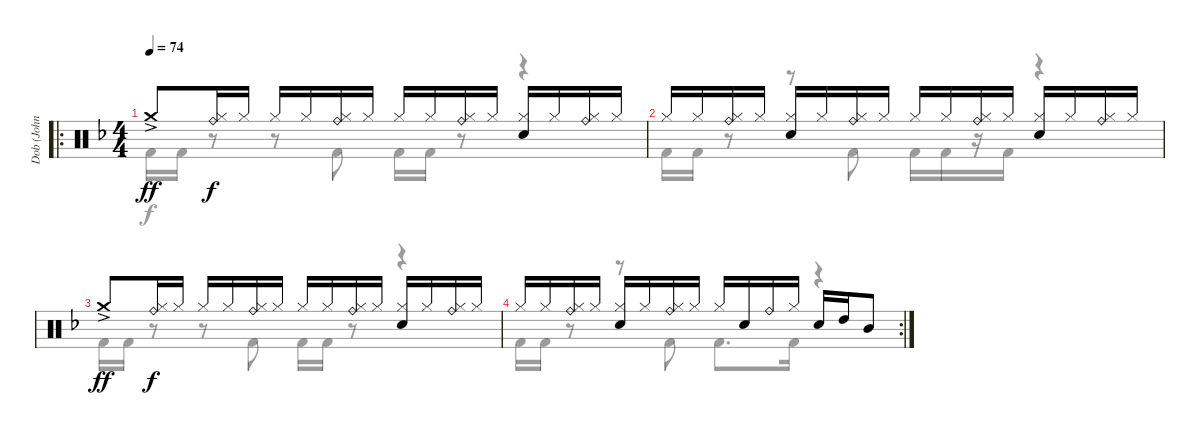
\track ("Dob (John O'Reilly)" "Dob (John ") {instrument percussion}
\staff {score}
\articulation defaults
\voice
\ro
\ts (4 4)
\tempo 74
\clef neutral
\ks f "Crash medium (hit)"{ac}.8{dy ff}
("Ride (bell)" "Hi-Hat (closed)").16{dy f} "Hi-Hat (closed)".16 "Hi-Hat (closed)".16 "Hi-Hat (closed)".16 ("Ride (bell)" "Hi-Hat (closed)").16 "Hi-Hat (closed)".16 "Hi-Hat (closed)".16 "Hi-Hat (closed)".16 ("Ride (bell)" "Hi-Hat (closed)").16 "Hi-Hat (closed)".16 ("Hi-Hat (closed)" "Electric Snare (hit)").16 "Hi-Hat (closed)".16 ("Ride (bell)" "Hi-Hat (closed)").16 "Hi-Hat (closed)".16 |
"Hi-Hat (closed)".16 "Hi-Hat (closed)".16 ("Ride (bell)" "Hi-Hat (closed)").16 "Hi-Hat (closed)".16 ("Hi-Hat (closed)" "Electric Snare (hit)").16 "Hi-Hat (closed)".16 ("Ride (bell)" "Hi-Hat (closed)").16 "Hi-Hat (closed)".16 "Hi-Hat (closed)".16 "Hi-Hat (closed)".16 ("Ride (bell)" "Hi-Hat (closed)").16 "Hi-Hat (closed)".16 ("Hi-Hat (closed)" "Electric Snare (hit)").16 "Hi-Hat (closed)".16 ("Ride (bell)" "Hi-Hat (closed)").16 "Hi-Hat (closed)".16 |
"Crash medium (hit)"{ac}.8{dy ff} ("Ride (bell)" "Hi-Hat (closed)").16{dy f} "Hi-Hat (closed)".16 "Hi-Hat (closed)".16 "Hi-Hat (closed)".16 ("Ride (bell)" "Hi-Hat (closed)").16 "Hi-Hat (closed)".16 "Hi-Hat (closed)".16 "Hi-Hat (closed)".16 ("Ride (bell)" "Hi-Hat (closed)").16 "Hi-Hat (closed)".16 ("Hi-Hat (closed)" "Electric Snare (hit)").16 "Hi-Hat (closed)".16 ("Ride (bell)" "Hi-Hat (closed)").16 "Hi-Hat (closed)".16 |
\rc 2 "Hi-Hat (closed)".16 "Hi-Hat (closed)".16
("Ride (bell)" "Hi-Hat (closed)").16 "Hi-Hat (closed)".16 ("Hi-Hat (closed)" "Electric Snare (hit)").16 "Hi-Hat (closed)".16 ("Ride (bell)" "Hi-Hat (closed)").16 "Hi-Hat (closed)".16 "Hi-Hat (closed)".16 "Electric Snare (hit)".16 "Ride (bell)".16 "Hi-Hat (closed)".16 "Electric Snare (hit)".16 "High Tom (hit)".16 "Mid Tom (hit)".8 |
\voice
\clef neutral
\ottava regular
\simile none
\ks f "Kick (hit) 2".16{dy f} "Kick (hit) 2".16
r.8 r.8 "Kick (hit) 2".8 "Kick (hit) 2".16 "Kick (hit) 2".16 r.8 r.4 |
"Kick (hit) 2".16 "Kick (hit) 2".16 r.8 r.8 "Kick (hit) 2".8 "Kick (hit) 2".16 "Kick (hit) 2".16 r.16 "Kick (hit) 2".16 r.4 |
"Kick (hit) 2".16 "Kick (hit) 2".16 r.8 r.8 "Kick (hit) 2".8 "Kick (hit) 2".16 "Kick (hit) 2".16 r.8 r.4 |
"Kick (hit) 2".16 "Kick (hit) 2".16 r.8 r.8 "Kick (hit) 2".8 "Kick (hit) 2".8{d} "Kick (hit) 2".16 r.4 |
